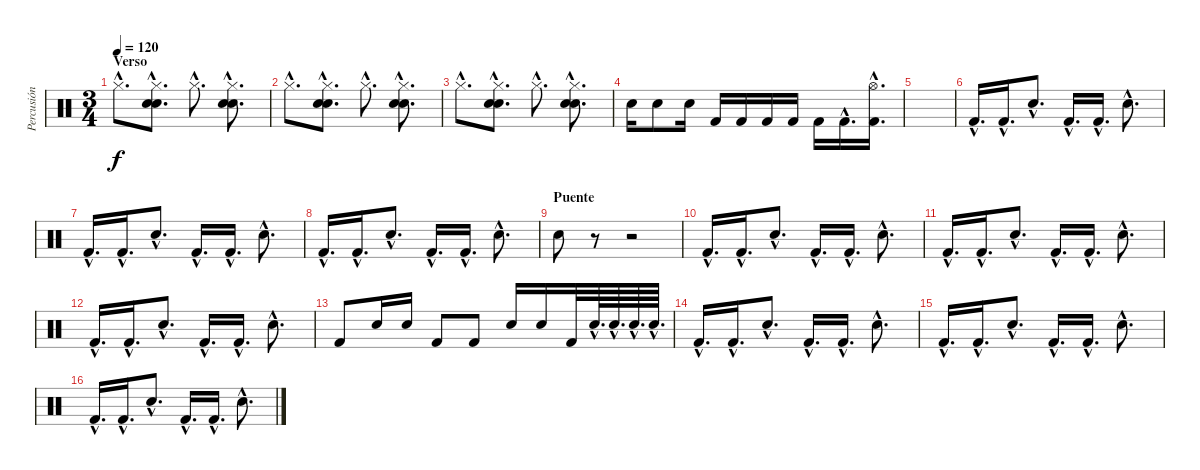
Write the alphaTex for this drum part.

\track ("Percusión" "Percusión") {instrument percussion}
\staff {score}
\articulation defaults
\ts (3 4)
\section ("" "Verso")
\tempo 120
\clef neutral
\ks c "Hi-Hat (closed)"{hac}.8{d dy f}
("Electric Snare (hit)"{hac} "Snare (hit) 2"{hac} "Hi-Hat (closed)"{hac}).8{d} "Hi-Hat (closed)"{hac}.8{d} ("Electric Snare (hit)"{hac} "Snare (hit) 2"{hac} "Hi-Hat (closed)"{hac}).8{d} |
"Hi-Hat (closed)"{hac}.8{d} ("Electric Snare (hit)"{hac} "Snare (hit) 2"{hac} "Hi-Hat (closed)"{hac}).8{d} "Hi-Hat (closed)"{hac}.8{d} ("Electric Snare (hit)"{hac} "Snare (hit) 2"{hac} "Hi-Hat (closed)"{hac}).8{d} |
"Hi-Hat (closed)"{hac}.8{d} ("Electric Snare (hit)"{hac} "Snare (hit) 2"{hac} "Hi-Hat (closed)"{hac}).8{d} "Hi-Hat (closed)"{hac}.8{d} ("Electric Snare (hit)"{hac} "Snare (hit) 2"{hac} "Hi-Hat (closed)"{hac}).8{d} |
"Electric Snare (hit)".16 "Electric Snare (hit)".8 "Electric Snare (hit)".16 "Kick (hit) 2".16 "Kick (hit) 2".16 "Kick (hit) 2".16 "Kick (hit) 2".16 "Kick (hit) 2".16 "Kick (hit) 2"{hac}.16{d} ("Kick (hit) 2"{hac} "Hi-Hat (open)"{hac}).16{d} |
|
"Kick (hit) 2"{hac}.16{d} "Kick (hit) 2"{hac}.16{d} "Electric Snare (hit)"{hac}.8{d} "Kick (hit) 2"{hac}.16{d} "Kick (hit) 2"{hac}.16{d} "Electric Snare (hit)"{hac}.8{d} |
"Kick (hit) 2"{hac}.16{d} "Kick (hit) 2"{hac}.16{d} "Electric Snare (hit)"{hac}.8{d} "Kick (hit) 2"{hac}.16{d} "Kick (hit) 2"{hac}.16{d} "Electric Snare (hit)"{hac}.8{d} |
"Kick (hit) 2"{hac}.16{d} "Kick (hit) 2"{hac}.16{d} "Electric Snare (hit)"{hac}.8{d} "Kick (hit) 2"{hac}.16{d} "Kick (hit) 2"{hac}.16{d} "Electric Snare (hit)"{hac}.8{d} |
\section ("" "Puente")
"Electric Snare (hit)".8 r.8 r.2 |
"Kick (hit) 2"{hac}.16{d} "Kick (hit) 2"{hac}.16{d} "Electric Snare (hit)"{hac}.8{d} "Kick (hit) 2"{hac}.16{d} "Kick (hit) 2"{hac}.16{d} "Electric Snare (hit)"{hac}.8{d} |
"Kick (hit) 2"{hac}.16{d} "Kick (hit) 2"{hac}.16{d} "Electric Snare (hit)"{hac}.8{d} "Kick (hit) 2"{hac}.16{d} "Kick (hit) 2"{hac}.16{d} "Electric Snare (hit)"{hac}.8{d} |
"Kick (hit) 2"{hac}.16{d} "Kick (hit) 2"{hac}.16{d} "Electric Snare (hit)"{hac}.8{d} "Kick (hit) 2"{hac}.16{d} "Kick (hit) 2"{hac}.16{d} "Electric Snare (hit)"{hac}.8{d} |
"Kick (hit) 2".8 "Electric Snare (hit)".16 "Electric Snare (hit)".16 "Kick (hit) 2".8 "Kick (hit) 2".8 "Electric Snare (hit)".16 "Electric Snare (hit)".16 "Kick (hit) 2".32 "Electric Snare (hit)"{hac}.64{d} "Electric Snare (hit)"{hac}.64{d} "Electric Snare (hit)"{hac}.64{d} "Electric Snare (hit)"{hac}.64{d} |
"Kick (hit) 2"{hac}.16{d} "Kick (hit) 2"{hac}.16{d} "Electric Snare (hit)"{hac}.8{d} "Kick (hit) 2"{hac}.16{d} "Kick (hit) 2"{hac}.16{d} "Electric Snare (hit)"{hac}.8{d} |
"Kick (hit) 2"{hac}.16{d} "Kick (hit) 2"{hac}.16{d} "Electric Snare (hit)"{hac}.8{d} "Kick (hit) 2"{hac}.16{d} "Kick (hit) 2"{hac}.16{d} "Electric Snare (hit)"{hac}.8{d} |
"Kick (hit) 2"{hac}.16{d} "Kick (hit) 2"{hac}.16{d} "Electric Snare (hit)"{hac}.8{d} "Kick (hit) 2"{hac}.16{d} "Kick (hit) 2"{hac}.16{d} "Electric Snare (hit)"{hac}.8{d}
